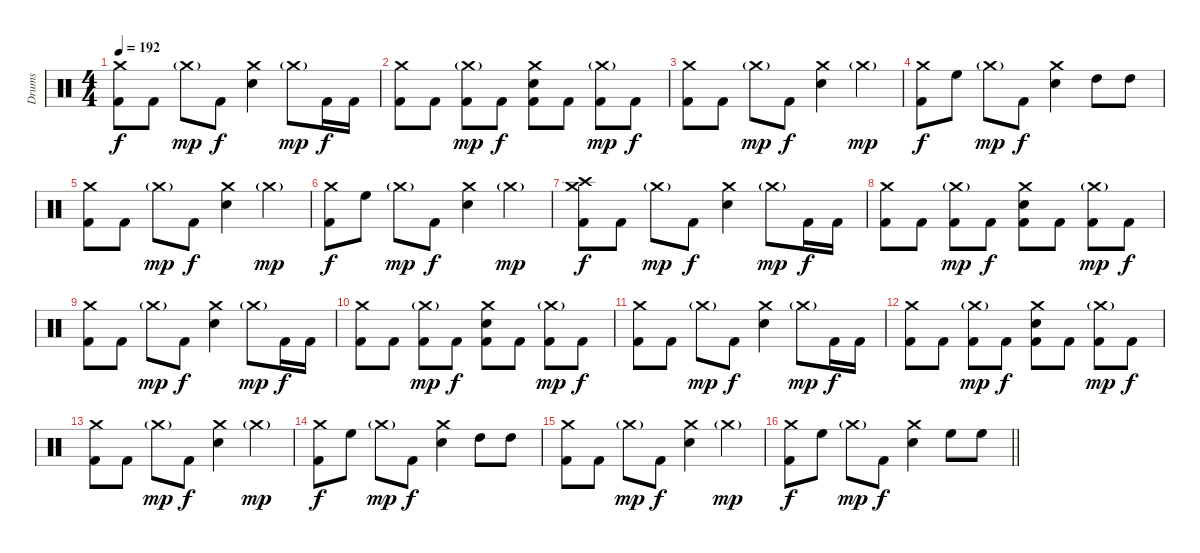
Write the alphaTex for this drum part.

\track ("Drums" "Drums") {instrument percussion}
\staff {score}
\articulation defaults
\ts (4 4)
\tempo 192
\clef neutral
\ks c
("Crash medium (hit)" "Kick (hit) 2").8{dy f} "Kick (hit) 2".8 "Crash medium (hit)"{g}.8{dy mp} "Kick (hit) 2".8{dy f} ("Crash medium (hit)" "Electric Snare (hit)").4 "Crash medium (hit)"{g}.8{dy mp} "Kick (hit) 2".16{dy f} "Kick (hit) 2".16 |
("Crash medium (hit)" "Kick (hit) 2").8 "Kick (hit) 2".8 ("Crash medium (hit)"{g} "Kick (hit) 2").8{dy mp} "Kick (hit) 2".8{dy f} ("Crash medium (hit)" "Electric Snare (hit)" "Kick (hit) 2").8 "Kick (hit) 2".8 ("Crash medium (hit)"{g} "Kick (hit) 2").8{dy mp} "Kick (hit) 2".8{dy f} |
("Crash medium (hit)" "Kick (hit) 2").8 "Kick (hit) 2".8 "Crash medium (hit)"{g}.8{dy mp} "Kick (hit) 2".8{dy f} ("Crash medium (hit)" "Electric Snare (hit)").4 "Crash medium (hit)"{g}.4{dy mp} |
("Crash medium (hit)" "Kick (hit) 2").8{dy f} "High Floor Tom (hit)".8 "Crash medium (hit)"{g}.8{dy mp} "Kick (hit) 2".8{dy f} ("Crash medium (hit)" "Electric Snare (hit)").4 "High Tom (hit)".8 "High Tom (hit)".8 |
("Crash medium (hit)" "Kick (hit) 2").8 "Kick (hit) 2".8 "Crash medium (hit)"{g}.8{dy mp} "Kick (hit) 2".8{dy f} ("Crash medium (hit)" "Electric Snare (hit)").4 "Crash medium (hit)"{g}.4{dy mp} |
("Crash medium (hit)" "Kick (hit) 2").8{dy f} "High Floor Tom (hit)".8 "Crash medium (hit)"{g}.8{dy mp} "Kick (hit) 2".8{dy f} ("Crash medium (hit)" "Electric Snare (hit)").4 "Crash medium (hit)"{g}.4{dy mp} |
("Crash high (hit)" "Crash medium (hit)" "Kick (hit) 2").8{dy f} "Kick (hit) 2".8 "Crash medium (hit)"{g}.8{dy mp} "Kick (hit) 2".8{dy f} ("Crash medium (hit)" "Electric Snare (hit)").4 "Crash medium (hit)"{g}.8{dy mp} "Kick (hit) 2".16{dy f} "Kick (hit) 2".16 |
("Crash medium (hit)" "Kick (hit) 2").8 "Kick (hit) 2".8 ("Crash medium (hit)"{g} "Kick (hit) 2").8{dy mp} "Kick (hit) 2".8{dy f} ("Crash medium (hit)" "Electric Snare (hit)" "Kick (hit) 2").8 "Kick (hit) 2".8 ("Crash medium (hit)"{g} "Kick (hit) 2").8{dy mp} "Kick (hit) 2".8{dy f} |
("Crash medium (hit)" "Kick (hit) 2").8 "Kick (hit) 2".8 "Crash medium (hit)"{g}.8{dy mp} "Kick (hit) 2".8{dy f} ("Crash medium (hit)" "Electric Snare (hit)").4 "Crash medium (hit)"{g}.8{dy mp} "Kick (hit) 2".16{dy f} "Kick (hit) 2".16 |
("Crash medium (hit)" "Kick (hit) 2").8 "Kick (hit) 2".8 ("Crash medium (hit)"{g} "Kick (hit) 2").8{dy mp} "Kick (hit) 2".8{dy f} ("Crash medium (hit)" "Electric Snare (hit)" "Kick (hit) 2").8 "Kick (hit) 2".8 ("Crash medium (hit)"{g} "Kick (hit) 2").8{dy mp} "Kick (hit) 2".8{dy f} |
("Crash medium (hit)" "Kick (hit) 2").8 "Kick (hit) 2".8 "Crash medium (hit)"{g}.8{dy mp} "Kick (hit) 2".8{dy f} ("Crash medium (hit)" "Electric Snare (hit)").4 "Crash medium (hit)"{g}.8{dy mp} "Kick (hit) 2".16{dy f} "Kick (hit) 2".16 |
("Crash medium (hit)" "Kick (hit) 2").8 "Kick (hit) 2".8 ("Crash medium (hit)"{g} "Kick (hit) 2").8{dy mp} "Kick (hit) 2".8{dy f} ("Crash medium (hit)" "Electric Snare (hit)" "Kick (hit) 2").8 "Kick (hit) 2".8 ("Crash medium (hit)"{g} "Kick (hit) 2").8{dy mp} "Kick (hit) 2".8{dy f} |
("Crash medium (hit)" "Kick (hit) 2").8 "Kick (hit) 2".8 "Crash medium (hit)"{g}.8{dy mp} "Kick (hit) 2".8{dy f} ("Crash medium (hit)" "Electric Snare (hit)").4 "Crash medium (hit)"{g}.4{dy mp} |
("Crash medium (hit)" "Kick (hit) 2").8{dy f} "High Floor Tom (hit)".8 "Crash medium (hit)"{g}.8{dy mp} "Kick (hit) 2".8{dy f} ("Crash medium (hit)" "Electric Snare (hit)").4 "High Tom (hit)".8 "High Tom (hit)".8 |
("Crash medium (hit)" "Kick (hit) 2").8 "Kick (hit) 2".8 "Crash medium (hit)"{g}.8{dy mp} "Kick (hit) 2".8{dy f} ("Crash medium (hit)" "Electric Snare (hit)").4 "Crash medium (hit)"{g}.4{dy mp} |
\barLineRight lightlight
("Crash medium (hit)" "Kick (hit) 2").8{dy f} "High Floor Tom (hit)".8 "Crash medium (hit)"{g}.8{dy mp} "Kick (hit) 2".8{dy f} ("Crash medium (hit)" "Electric Snare (hit)").4 "High Floor Tom (hit)".8 "High Floor Tom (hit)".8
